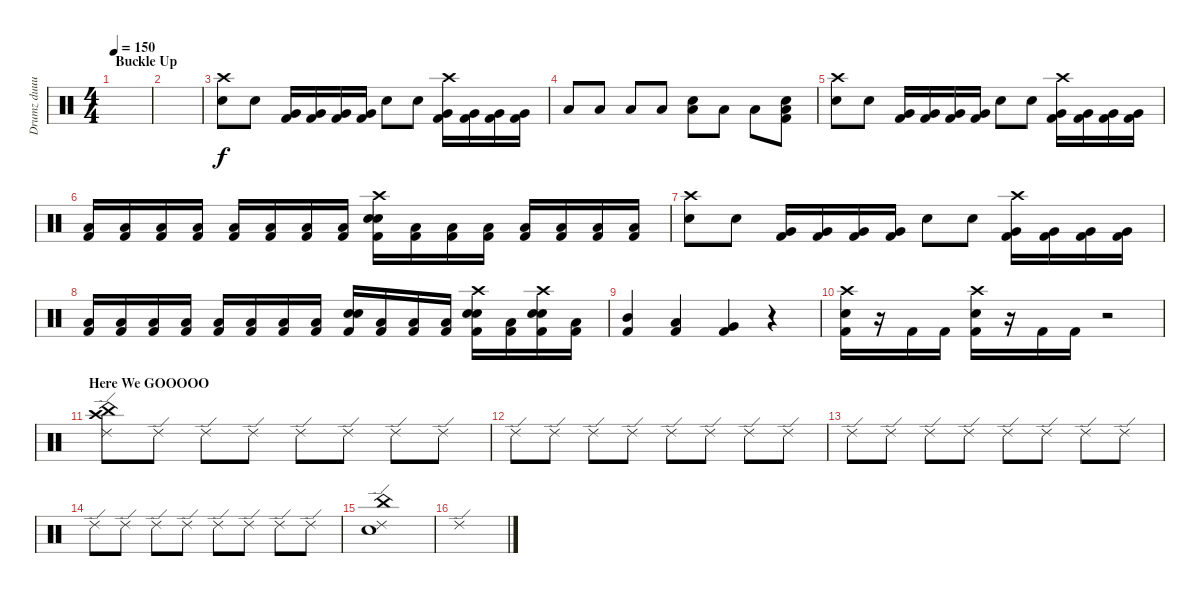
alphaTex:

\track ("Drumz duuuuude" "Drumz duuu") {instrument percussion}
\staff {score}
\articulation defaults
\ts (4 4)
\section ("" "Buckle Up")
\tempo 150
\clef neutral
\ks c
|
|
("Crash high (hit)" "Electric Snare (hit)").8 "Electric Snare (hit)".8 ("Kick (hit) 2" "Very Low Tom (hit)").16 ("Kick (hit) 2" "Very Low Tom (hit)").16 ("Kick (hit) 2" "Very Low Tom (hit)").16 ("Kick (hit) 2" "Very Low Tom (hit)").16 "Electric Snare (hit)".8 "Electric Snare (hit)".8 ("Crash high (hit)" "Kick (hit) 2" "Very Low Tom (hit)").16 ("Kick (hit) 2" "Very Low Tom (hit)").16 ("Kick (hit) 2" "Very Low Tom (hit)").16 ("Kick (hit) 2" "Very Low Tom (hit)").16 |
"Low Floor Tom (hit)".8 "Low Floor Tom (hit)".8 "Low Floor Tom (hit)".8 "Low Floor Tom (hit)".8 ("Electric Snare (hit)" "Low Floor Tom (hit)").8 "Low Floor Tom (hit)".8 "Low Floor Tom (hit)".8 ("Electric Snare (hit)" "Kick (hit) 2" "Low Floor Tom (hit)").8 |
("Crash high (hit)" "Electric Snare (hit)").8 "Electric Snare (hit)".8 ("Kick (hit) 2" "Very Low Tom (hit)").16 ("Kick (hit) 2" "Very Low Tom (hit)").16 ("Kick (hit) 2" "Very Low Tom (hit)").16 ("Kick (hit) 2" "Very Low Tom (hit)").16 "Electric Snare (hit)".8 "Electric Snare (hit)".8 ("Crash high (hit)" "Kick (hit) 2" "Very Low Tom (hit)").16 ("Kick (hit) 2" "Very Low Tom (hit)").16 ("Kick (hit) 2" "Very Low Tom (hit)").16 ("Kick (hit) 2" "Very Low Tom (hit)").16 |
("Kick (hit) 2" "Low Floor Tom (hit)").16 ("Kick (hit) 2" "Low Floor Tom (hit)").16 ("Kick (hit) 2" "Low Floor Tom (hit)").16 ("Kick (hit) 2" "Low Floor Tom (hit)").16 ("Kick (hit) 2" "Low Floor Tom (hit)").16 ("Kick (hit) 2" "Low Floor Tom (hit)").16 ("Kick (hit) 2" "Low Floor Tom (hit)").16 ("Kick (hit) 2" "Low Floor Tom (hit)").16 ("Crash high (hit)" "Kick (hit) 2" "Snare (hit) 2" "Electric Snare (hit)").16 ("Kick (hit) 2" "Low Floor Tom (hit)").16 ("Kick (hit) 2" "Low Floor Tom (hit)").16 ("Kick (hit) 2" "Low Floor Tom (hit)").16 ("Kick (hit) 2" "Low Floor Tom (hit)").16 ("Kick (hit) 2" "Low Floor Tom (hit)").16 ("Kick (hit) 2" "Low Floor Tom (hit)").16 ("Kick (hit) 2" "Low Floor Tom (hit)").16 |
("Crash high (hit)" "Electric Snare (hit)").8 "Electric Snare (hit)".8 ("Kick (hit) 2" "Very Low Tom (hit)").16 ("Kick (hit) 2" "Very Low Tom (hit)").16 ("Kick (hit) 2" "Very Low Tom (hit)").16 ("Kick (hit) 2" "Very Low Tom (hit)").16 "Electric Snare (hit)".8 "Electric Snare (hit)".8 ("Crash high (hit)" "Kick (hit) 2" "Very Low Tom (hit)").16 ("Kick (hit) 2" "Very Low Tom (hit)").16 ("Kick (hit) 2" "Very Low Tom (hit)").16 ("Kick (hit) 2" "Very Low Tom (hit)").16 |
("Kick (hit) 2" "Low Floor Tom (hit)").16 ("Kick (hit) 2" "Low Floor Tom (hit)").16 ("Kick (hit) 2" "Low Floor Tom (hit)").16 ("Kick (hit) 2" "Low Floor Tom (hit)").16 ("Kick (hit) 2" "Low Floor Tom (hit)").16 ("Kick (hit) 2" "Low Floor Tom (hit)").16 ("Kick (hit) 2" "Low Floor Tom (hit)").16 ("Kick (hit) 2" "Low Floor Tom (hit)").16 ("Kick (hit) 2" "Snare (hit) 2" "Electric Snare (hit)").16 ("Kick (hit) 2" "Low Floor Tom (hit)").16 ("Kick (hit) 2" "Low Floor Tom (hit)").16 ("Kick (hit) 2" "Low Floor Tom (hit)").16 ("Crash high (hit)" "Kick (hit) 2" "Snare (hit) 2" "Electric Snare (hit)").16 ("Kick (hit) 2" "Low Floor Tom (hit)").16 ("Crash high (hit)" "Kick (hit) 2" "Snare (hit) 2" "Electric Snare (hit)").16 ("Kick (hit) 2" "Low Floor Tom (hit)").16 |
("Kick (hit) 2" "Mid Tom (hit)").4 ("Kick (hit) 2" "Low Tom (hit)").4 ("Kick (hit) 2" "Very Low Tom (hit)").4 r.4 |
("Crash high (hit)" "Kick (hit) 2" "Electric Snare (hit)").16 r.16 "Kick (hit) 2".16 "Kick (hit) 2".16 ("Crash high (hit)" "Kick (hit) 2" "Electric Snare (hit)").16 r.16 "Kick (hit) 2".16 "Kick (hit) 2".16 r.2 |
\section ("" "Here We GOOOOO")
("China (hit)" "Crash high (hit)" "Ride (edge) 2").8 "Ride (edge) 2".8 "Ride (edge) 2".8 "Ride (edge) 2".8 "Ride (edge) 2".8 "Ride (edge) 2".8 "Ride (edge) 2".8 "Ride (edge) 2".8 |
"Ride (edge) 2".8 "Ride (edge) 2".8 "Ride (edge) 2".8 "Ride (edge) 2".8 "Ride (edge) 2".8 "Ride (edge) 2".8 "Ride (edge) 2".8 "Ride (edge) 2".8 |
"Ride (edge) 2".8 "Ride (edge) 2".8 "Ride (edge) 2".8 "Ride (edge) 2".8 "Ride (edge) 2".8 "Ride (edge) 2".8 "Ride (edge) 2".8 "Ride (edge) 2".8 |
"Ride (edge) 2".8 "Ride (edge) 2".8 "Ride (edge) 2".8 "Ride (edge) 2".8 "Ride (edge) 2".8 "Ride (edge) 2".8 "Ride (edge) 2".8 "Ride (edge) 2".8 |
("China (hit)" "Ride (edge) 2" "Snare (hit) 2").1 |
"Ride (edge) 2".1
